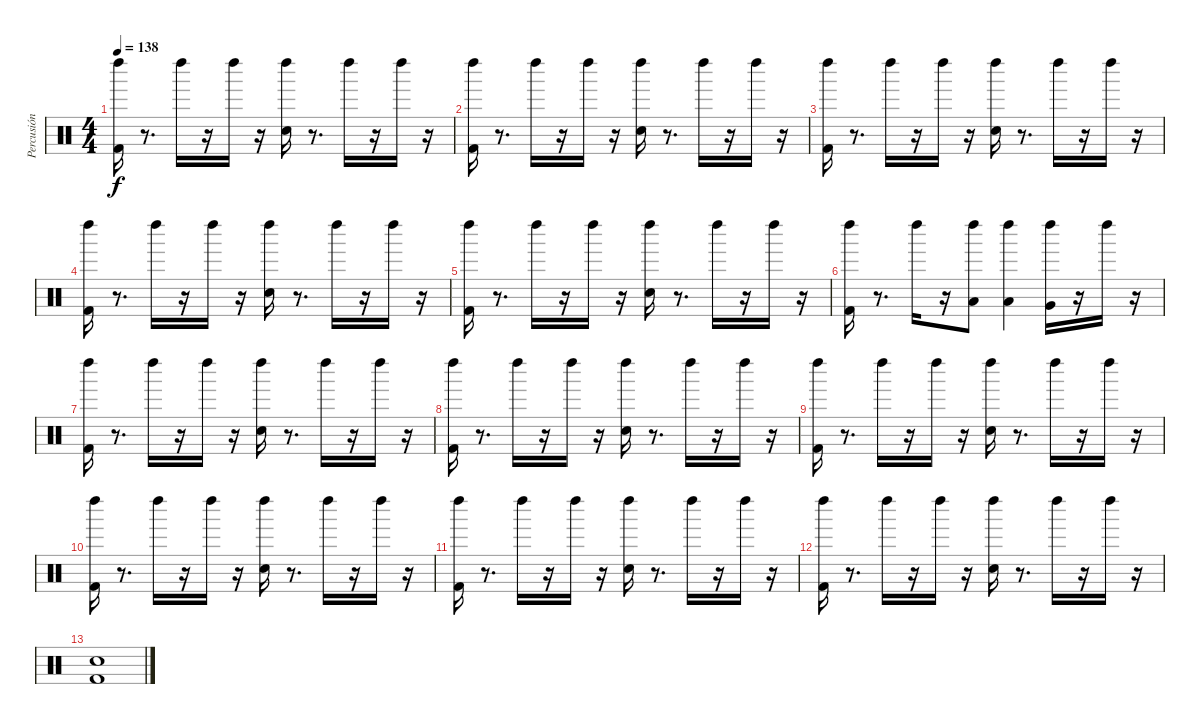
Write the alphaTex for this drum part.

\track ("Percusión" "Percusión") {instrument percussion}
\staff {score}
\articulation defaults
\ts (4 4)
\tempo 138
\clef neutral
\ks c
("Kick (hit) 2" "Left Maraca (hit)").16{dy f} r.8{d} "Left Maraca (hit)".16 r.16 "Left Maraca (hit)".16 r.16 ("Left Maraca (hit)" "Electric Snare (hit)").16 r.8{d} "Left Maraca (hit)".16 r.16 "Left Maraca (hit)".16 r.16 |
("Kick (hit) 2" "Left Maraca (hit)").16 r.8{d} "Left Maraca (hit)".16 r.16 "Left Maraca (hit)".16 r.16 ("Left Maraca (hit)" "Electric Snare (hit)").16 r.8{d} "Left Maraca (hit)".16 r.16 "Left Maraca (hit)".16 r.16 |
("Kick (hit) 2" "Left Maraca (hit)").16 r.8{d} "Left Maraca (hit)".16 r.16 "Left Maraca (hit)".16 r.16 ("Left Maraca (hit)" "Electric Snare (hit)").16 r.8{d} "Left Maraca (hit)".16 r.16 "Left Maraca (hit)".16 r.16 |
("Kick (hit) 2" "Left Maraca (hit)").16 r.8{d} "Left Maraca (hit)".16 r.16 "Left Maraca (hit)".16 r.16 ("Left Maraca (hit)" "Electric Snare (hit)").16 r.8{d} "Left Maraca (hit)".16 r.16 "Left Maraca (hit)".16 r.16 |
("Kick (hit) 2" "Left Maraca (hit)").16 r.8{d} "Left Maraca (hit)".16 r.16 "Left Maraca (hit)".16 r.16 ("Left Maraca (hit)" "Electric Snare (hit)").16 r.8{d} "Left Maraca (hit)".16 r.16 "Left Maraca (hit)".16 r.16 |
("Kick (hit) 2" "Left Maraca (hit)").16 r.8{d} "Left Maraca (hit)".16 r.16 ("Left Maraca (hit)" "Low Tom (hit)").8 ("Left Maraca (hit)" "Low Tom (hit)").4 ("Left Maraca (hit)" "Very Low Tom (hit)").16 r.16 "Left Maraca (hit)".16 r.16 |
("Kick (hit) 2" "Left Maraca (hit)").16 r.8{d} "Left Maraca (hit)".16 r.16 "Left Maraca (hit)".16 r.16 ("Left Maraca (hit)" "Electric Snare (hit)").16 r.8{d} "Left Maraca (hit)".16 r.16 "Left Maraca (hit)".16 r.16 |
("Kick (hit) 2" "Left Maraca (hit)").16 r.8{d} "Left Maraca (hit)".16 r.16 "Left Maraca (hit)".16 r.16 ("Left Maraca (hit)" "Electric Snare (hit)").16 r.8{d} "Left Maraca (hit)".16 r.16 "Left Maraca (hit)".16 r.16 |
("Kick (hit) 2" "Left Maraca (hit)").16 r.8{d} "Left Maraca (hit)".16 r.16 "Left Maraca (hit)".16 r.16 ("Left Maraca (hit)" "Electric Snare (hit)").16 r.8{d} "Left Maraca (hit)".16 r.16 "Left Maraca (hit)".16 r.16 |
("Kick (hit) 2" "Left Maraca (hit)").16 r.8{d} "Left Maraca (hit)".16 r.16 "Left Maraca (hit)".16 r.16 ("Left Maraca (hit)" "Electric Snare (hit)").16 r.8{d} "Left Maraca (hit)".16 r.16 "Left Maraca (hit)".16 r.16 |
("Kick (hit) 2" "Left Maraca (hit)").16 r.8{d} "Left Maraca (hit)".16 r.16 "Left Maraca (hit)".16 r.16 ("Left Maraca (hit)" "Electric Snare (hit)").16 r.8{d} "Left Maraca (hit)".16 r.16 "Left Maraca (hit)".16 r.16 |
("Kick (hit) 2" "Left Maraca (hit)").16 r.8{d} "Left Maraca (hit)".16 r.16 "Left Maraca (hit)".16 r.16 ("Left Maraca (hit)" "Electric Snare (hit)").16 r.8{d} "Left Maraca (hit)".16 r.16 "Left Maraca (hit)".16 r.16 |
("Electric Snare (hit)" "Kick (hit) 2").1
